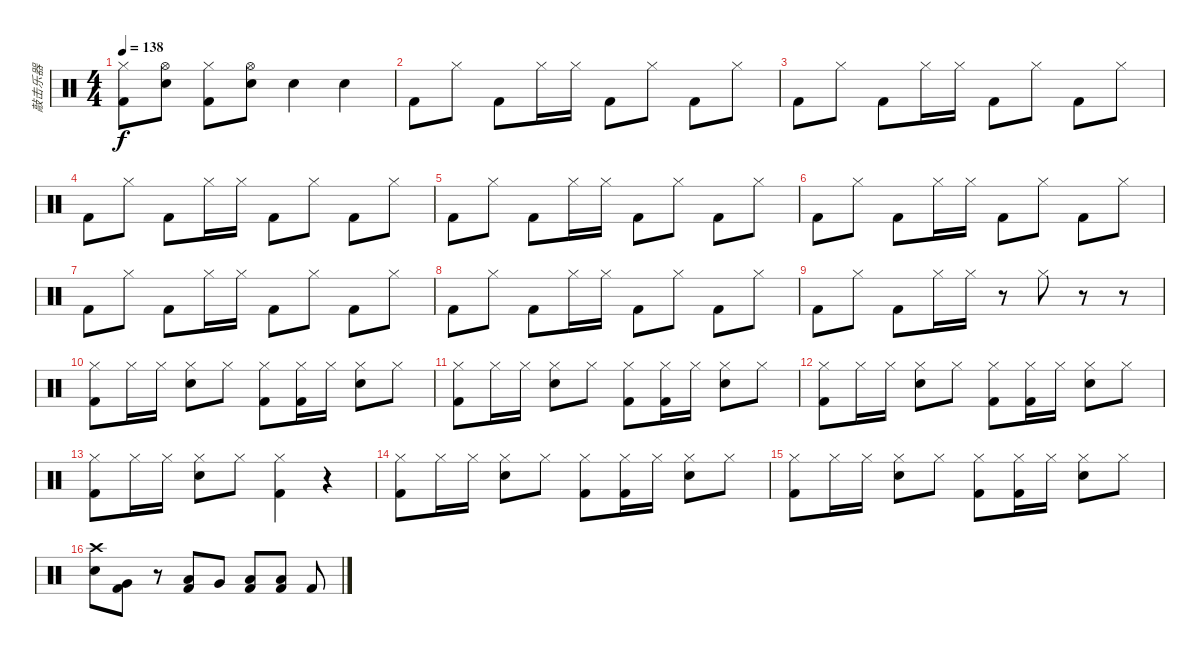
\track ("敲击乐器" "敲击乐器") {instrument percussion}
\staff {score}
\articulation defaults
\ts (4 4)
\tempo 138
\clef neutral
\ks c
("Hi-Hat (closed)" "Kick (hit) 2").8{dy f} ("Hi-Hat (open)" "Electric Snare (hit)").8 ("Hi-Hat (closed)" "Kick (hit) 2").8 ("Hi-Hat (open)" "Electric Snare (hit)").8 "Electric Snare (hit)".4 "Electric Snare (hit)".4 |
"Kick (hit) 2".8 "Hi-Hat (closed)".8 "Kick (hit) 2".8 "Hi-Hat (closed)".16 "Hi-Hat (closed)".16 "Kick (hit) 2".8 "Hi-Hat (closed)".8 "Kick (hit) 2".8 "Hi-Hat (closed)".8 |
"Kick (hit) 2".8 "Hi-Hat (closed)".8 "Kick (hit) 2".8 "Hi-Hat (closed)".16 "Hi-Hat (closed)".16 "Kick (hit) 2".8 "Hi-Hat (closed)".8 "Kick (hit) 2".8 "Hi-Hat (closed)".8 |
"Kick (hit) 2".8 "Hi-Hat (closed)".8 "Kick (hit) 2".8 "Hi-Hat (closed)".16 "Hi-Hat (closed)".16 "Kick (hit) 2".8 "Hi-Hat (closed)".8 "Kick (hit) 2".8 "Hi-Hat (closed)".8 |
"Kick (hit) 2".8 "Hi-Hat (closed)".8 "Kick (hit) 2".8 "Hi-Hat (closed)".16 "Hi-Hat (closed)".16 "Kick (hit) 2".8 "Hi-Hat (closed)".8 "Kick (hit) 2".8 "Hi-Hat (closed)".8 |
"Kick (hit) 2".8 "Hi-Hat (closed)".8 "Kick (hit) 2".8 "Hi-Hat (closed)".16 "Hi-Hat (closed)".16 "Kick (hit) 2".8 "Hi-Hat (closed)".8 "Kick (hit) 2".8 "Hi-Hat (closed)".8 |
"Kick (hit) 2".8 "Hi-Hat (closed)".8 "Kick (hit) 2".8 "Hi-Hat (closed)".16 "Hi-Hat (closed)".16 "Kick (hit) 2".8 "Hi-Hat (closed)".8 "Kick (hit) 2".8 "Hi-Hat (closed)".8 |
"Kick (hit) 2".8 "Hi-Hat (closed)".8 "Kick (hit) 2".8 "Hi-Hat (closed)".16 "Hi-Hat (closed)".16 "Kick (hit) 2".8 "Hi-Hat (closed)".8 "Kick (hit) 2".8 "Hi-Hat (closed)".8 |
"Kick (hit) 2".8 "Hi-Hat (closed)".8 "Kick (hit) 2".8 "Hi-Hat (closed)".16 "Hi-Hat (closed)".16 r.8 "Hi-Hat (closed)".8 r.8 r.8 |
("Hi-Hat (closed)" "Kick (hit) 2").8 "Hi-Hat (closed)".16 "Hi-Hat (closed)".16 ("Hi-Hat (closed)" "Electric Snare (hit)").8 "Hi-Hat (closed)".8 ("Hi-Hat (closed)" "Kick (hit) 2").8 ("Hi-Hat (closed)" "Kick (hit) 2").16 "Hi-Hat (closed)".16 ("Hi-Hat (closed)" "Electric Snare (hit)").8 "Hi-Hat (closed)".8 |
("Hi-Hat (closed)" "Kick (hit) 2").8 "Hi-Hat (closed)".16 "Hi-Hat (closed)".16 ("Hi-Hat (closed)" "Electric Snare (hit)").8 "Hi-Hat (closed)".8 ("Hi-Hat (closed)" "Kick (hit) 2").8 ("Hi-Hat (closed)" "Kick (hit) 2").16 "Hi-Hat (closed)".16 ("Hi-Hat (closed)" "Electric Snare (hit)").8 "Hi-Hat (closed)".8 |
("Hi-Hat (closed)" "Kick (hit) 2").8 "Hi-Hat (closed)".16 "Hi-Hat (closed)".16 ("Hi-Hat (closed)" "Electric Snare (hit)").8 "Hi-Hat (closed)".8 ("Hi-Hat (closed)" "Kick (hit) 2").8 ("Hi-Hat (closed)" "Kick (hit) 2").16 "Hi-Hat (closed)".16 ("Hi-Hat (closed)" "Electric Snare (hit)").8 "Hi-Hat (closed)".8 |
("Hi-Hat (closed)" "Kick (hit) 2").8 "Hi-Hat (closed)".16 "Hi-Hat (closed)".16 ("Hi-Hat (closed)" "Electric Snare (hit)").8 "Hi-Hat (closed)".8 ("Hi-Hat (closed)" "Kick (hit) 2").4 r.4 |
("Hi-Hat (closed)" "Kick (hit) 2").8 "Hi-Hat (closed)".16 "Hi-Hat (closed)".16 ("Hi-Hat (closed)" "Electric Snare (hit)").8 "Hi-Hat (closed)".8 ("Hi-Hat (closed)" "Kick (hit) 2").8 ("Hi-Hat (closed)" "Kick (hit) 2").16 "Hi-Hat (closed)".16 ("Hi-Hat (closed)" "Electric Snare (hit)").8 "Hi-Hat (closed)".8 |
("Hi-Hat (closed)" "Kick (hit) 2").8 "Hi-Hat (closed)".16 "Hi-Hat (closed)".16 ("Hi-Hat (closed)" "Electric Snare (hit)").8 "Hi-Hat (closed)".8 ("Hi-Hat (closed)" "Kick (hit) 2").8 ("Hi-Hat (closed)" "Kick (hit) 2").16 "Hi-Hat (closed)".16 ("Hi-Hat (closed)" "Electric Snare (hit)").8 "Hi-Hat (closed)".8 |
("Crash high (hit)" "Electric Snare (hit)").8 ("Very Low Tom (hit)" "Kick (hit) 2").8 r.8 ("Low Floor Tom (hit)" "Kick (hit) 2").8{beam merge} "Very Low Tom (hit)".8{beam split} ("Low Floor Tom (hit)" "Kick (hit) 2").8{beam merge} ("Low Floor Tom (hit)" "Kick (hit) 2").8{beam split} "Kick (hit) 2".8
